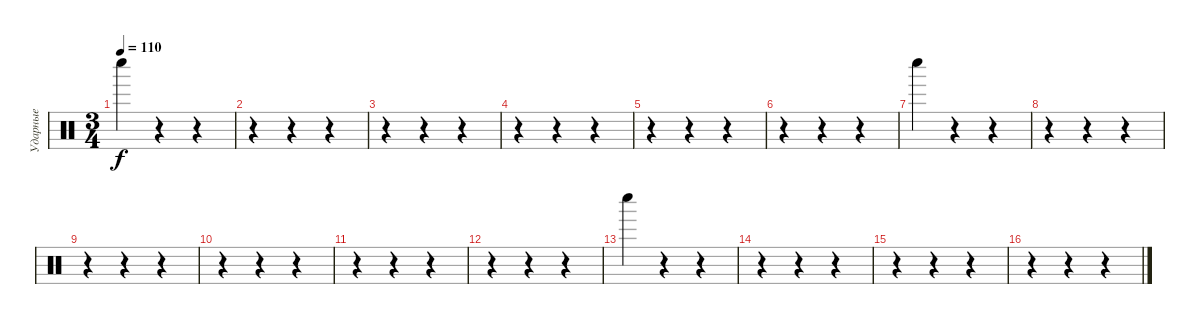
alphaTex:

\track ("Ударные" "Ударные") {instrument percussion}
\staff {score}
\articulation defaults
\ts (3 4)
\tempo 110
\clef neutral
\ks c "Whistle low (hit)".4{dy f}
r.4 r.4 |
r.4 r.4 r.4 |
r.4 r.4 r.4 |
r.4 r.4 r.4 |
r.4 r.4 r.4 |
r.4 r.4 r.4 |
"Whistle low (hit)".4 r.4 r.4 |
r.4 r.4 r.4 |
r.4 r.4 r.4 |
r.4 r.4 r.4 |
r.4 r.4 r.4 |
r.4 r.4 r.4 |
"Whistle low (hit)".4 r.4 r.4 |
r.4 r.4 r.4 |
r.4 r.4 r.4 |
r.4 r.4 r.4
